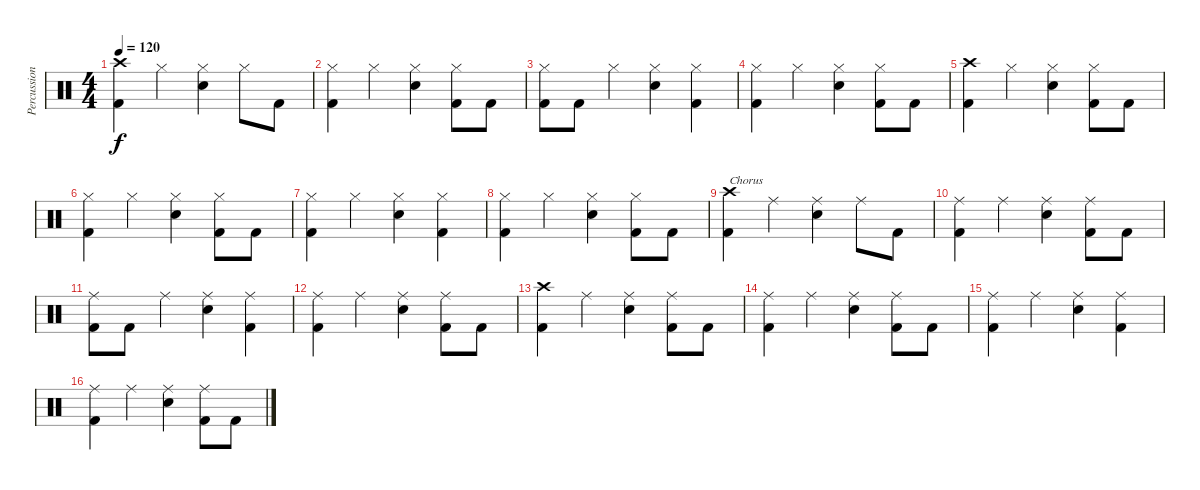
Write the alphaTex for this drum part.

\track ("Percussion" "Percussion") {instrument percussion}
\staff {score}
\articulation defaults
\ts (4 4)
\tempo 120
\clef neutral
\ks c
("Kick (hit) 2" "Crash high (hit)").4{dy f} "Hi-Hat (closed)".4 ("Snare (hit) 2" "Hi-Hat (closed)").4 "Hi-Hat (closed)".8 "Kick (hit) 2".8 |
("Kick (hit) 2" "Hi-Hat (closed)").4 "Hi-Hat (closed)".4 ("Snare (hit) 2" "Hi-Hat (closed)").4 ("Kick (hit) 2" "Hi-Hat (closed)").8 "Kick (hit) 2".8 |
("Kick (hit) 2" "Hi-Hat (closed)").8 "Kick (hit) 2".8 "Hi-Hat (closed)".4 ("Snare (hit) 2" "Hi-Hat (closed)").4 ("Kick (hit) 2" "Hi-Hat (closed)").4 |
("Kick (hit) 2" "Hi-Hat (closed)").4 "Hi-Hat (closed)".4 ("Snare (hit) 2" "Hi-Hat (closed)").4 ("Kick (hit) 2" "Hi-Hat (closed)").8 "Kick (hit) 2".8 |
("Kick (hit) 2" "Crash high (hit)").4 "Hi-Hat (closed)".4 ("Snare (hit) 2" "Hi-Hat (closed)").4 ("Kick (hit) 2" "Hi-Hat (closed)").8 "Kick (hit) 2".8 |
("Kick (hit) 2" "Hi-Hat (closed)").4 "Hi-Hat (closed)".4 ("Snare (hit) 2" "Hi-Hat (closed)").4 ("Kick (hit) 2" "Hi-Hat (closed)").8 "Kick (hit) 2".8 |
("Kick (hit) 2" "Hi-Hat (closed)").4 "Hi-Hat (closed)".4 ("Snare (hit) 2" "Hi-Hat (closed)").4 ("Kick (hit) 2" "Hi-Hat (closed)").4 |
("Kick (hit) 2" "Hi-Hat (closed)").4 "Hi-Hat (closed)".4 ("Snare (hit) 2" "Hi-Hat (closed)").4 ("Kick (hit) 2" "Hi-Hat (closed)").8 "Kick (hit) 2".8 |
("Kick (hit) 2" "Crash high (hit)").4{txt "Chorus"} "Ride (middle)".4 ("Snare (hit) 2" "Ride (middle)").4 "Ride (middle)".8 "Kick (hit) 2".8 |
("Kick (hit) 2" "Ride (middle)").4 "Ride (middle)".4 ("Snare (hit) 2" "Ride (middle)").4 ("Kick (hit) 2" "Ride (middle)").8 "Kick (hit) 2".8 |
("Kick (hit) 2" "Ride (middle)").8 "Kick (hit) 2".8 "Ride (middle)".4 ("Snare (hit) 2" "Ride (middle)").4 ("Kick (hit) 2" "Ride (middle)").4 |
("Kick (hit) 2" "Ride (middle)").4 "Ride (middle)".4 ("Snare (hit) 2" "Ride (middle)").4 ("Kick (hit) 2" "Ride (middle)").8 "Kick (hit) 2".8 |
("Kick (hit) 2" "Crash high (hit)").4 "Ride (middle)".4 ("Snare (hit) 2" "Ride (middle)").4 ("Kick (hit) 2" "Ride (middle)").8 "Kick (hit) 2".8 |
("Kick (hit) 2" "Ride (middle)").4 "Ride (middle)".4 ("Snare (hit) 2" "Ride (middle)").4 ("Kick (hit) 2" "Ride (middle)").8 "Kick (hit) 2".8 |
("Kick (hit) 2" "Ride (middle)").4 "Ride (middle)".4 ("Snare (hit) 2" "Ride (middle)").4 ("Kick (hit) 2" "Ride (middle)").4 |
("Kick (hit) 2" "Ride (middle)").4 "Ride (middle)".4 ("Snare (hit) 2" "Ride (middle)").4 ("Kick (hit) 2" "Ride (middle)").8 "Kick (hit) 2".8
